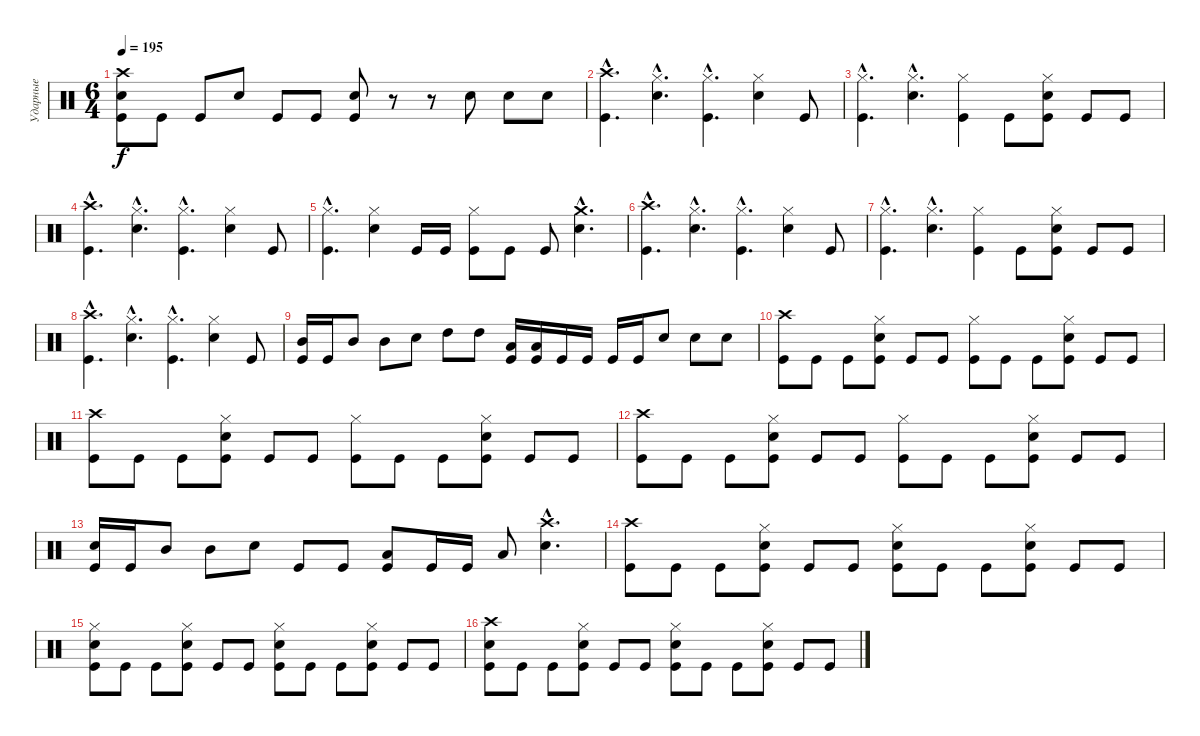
\track ("Ударные" "Ударные") {instrument percussion}
\staff {score}
\articulation defaults
\ts (6 4)
\tempo 195
\clef neutral
\ks c
("Crash high (hit)" "Electric Snare (hit)" "Kick (hit)").8{dy f} "Kick (hit)".8 "Kick (hit)".8 "Electric Snare (hit)".8 "Kick (hit)".8 "Kick (hit)".8 ("Electric Snare (hit)" "Kick (hit)").8 r.8 r.8 "Electric Snare (hit)".8 "Electric Snare (hit)".8 "Electric Snare (hit)".8 |
("Crash high (hit)"{hac} "Kick (hit)"{hac}).4{d} ("Hi-Hat (closed)"{hac} "Electric Snare (hit)"{hac}).4{d} ("Hi-Hat (closed)"{hac} "Kick (hit)"{hac}).4{d} ("Hi-Hat (closed)" "Electric Snare (hit)").4 "Kick (hit)".8 |
("Hi-Hat (closed)"{hac} "Kick (hit)"{hac}).4{d} ("Hi-Hat (closed)"{hac} "Electric Snare (hit)"{hac}).4{d} ("Hi-Hat (closed)" "Kick (hit)").4 "Kick (hit)".8 ("Hi-Hat (closed)" "Electric Snare (hit)" "Kick (hit)").8 "Kick (hit)".8 "Kick (hit)".8 |
("Crash high (hit)"{hac} "Kick (hit)"{hac}).4{d} ("Hi-Hat (closed)"{hac} "Electric Snare (hit)"{hac}).4{d} ("Hi-Hat (closed)"{hac} "Kick (hit)"{hac}).4{d} ("Hi-Hat (closed)" "Electric Snare (hit)").4 "Kick (hit)".8 |
("Hi-Hat (closed)"{hac} "Kick (hit)"{hac}).4{d} ("Hi-Hat (closed)" "Electric Snare (hit)").4 "Kick (hit)".16 "Kick (hit)".16 ("Hi-Hat (closed)" "Kick (hit)").8 "Kick (hit)".8 "Kick (hit)".8 ("Crash medium (hit)"{hac} "Electric Snare (hit)"{hac}).4{d} |
("Crash high (hit)"{hac} "Kick (hit)"{hac}).4{d} ("Hi-Hat (closed)"{hac} "Electric Snare (hit)"{hac}).4{d} ("Hi-Hat (closed)"{hac} "Kick (hit)"{hac}).4{d} ("Hi-Hat (closed)" "Electric Snare (hit)").4 "Kick (hit)".8 |
("Hi-Hat (closed)"{hac} "Kick (hit)"{hac}).4{d} ("Hi-Hat (closed)"{hac} "Electric Snare (hit)"{hac}).4{d} ("Hi-Hat (closed)" "Kick (hit)").4 "Kick (hit)".8 ("Hi-Hat (closed)" "Electric Snare (hit)" "Kick (hit)").8 "Kick (hit)".8 "Kick (hit)".8 |
("Crash high (hit)"{hac} "Kick (hit)"{hac}).4{d} ("Hi-Hat (closed)"{hac} "Electric Snare (hit)"{hac}).4{d} ("Hi-Hat (closed)"{hac} "Kick (hit)"{hac}).4{d} ("Hi-Hat (closed)" "Electric Snare (hit)").4 "Kick (hit)".8 |
("Mid Tom (hit)" "Kick (hit)").16 "Kick (hit)".16 "Mid Tom (hit)".8 "Mid Tom (hit)".8 "Electric Snare (hit)".8 "High Tom (hit)".8 "High Tom (hit)".8 ("Low Tom (hit)" "Kick (hit)").16 ("Low Tom (hit)" "Kick (hit)").16 "Kick (hit)".16 "Kick (hit)".16 "Kick (hit)".16 "Kick (hit)".16 "Electric Snare (hit)".8 "Electric Snare (hit)".8 "Electric Snare (hit)".8 |
("Crash high (hit)" "Kick (hit)").8 "Kick (hit)".8 "Kick (hit)".8 ("Hi-Hat (closed)" "Electric Snare (hit)" "Kick (hit)").8 "Kick (hit)".8 "Kick (hit)".8 ("Hi-Hat (closed)" "Kick (hit)").8 "Kick (hit)".8 "Kick (hit)".8 ("Hi-Hat (closed)" "Electric Snare (hit)" "Kick (hit)").8 "Kick (hit)".8 "Kick (hit)".8 |
("Crash high (hit)" "Kick (hit)").8 "Kick (hit)".8 "Kick (hit)".8 ("Hi-Hat (closed)" "Electric Snare (hit)" "Kick (hit)").8 "Kick (hit)".8 "Kick (hit)".8 ("Hi-Hat (closed)" "Kick (hit)").8 "Kick (hit)".8 "Kick (hit)".8 ("Hi-Hat (closed)" "Electric Snare (hit)" "Kick (hit)").8 "Kick (hit)".8 "Kick (hit)".8 |
("Crash high (hit)" "Kick (hit)").8 "Kick (hit)".8 "Kick (hit)".8 ("Hi-Hat (closed)" "Electric Snare (hit)" "Kick (hit)").8 "Kick (hit)".8 "Kick (hit)".8 ("Hi-Hat (closed)" "Kick (hit)").8 "Kick (hit)".8 "Kick (hit)".8 ("Hi-Hat (closed)" "Electric Snare (hit)" "Kick (hit)").8 "Kick (hit)".8 "Kick (hit)".8 |
("Electric Snare (hit)" "Kick (hit)").16 "Kick (hit)".16 "Mid Tom (hit)".8 "Mid Tom (hit)".8 "Electric Snare (hit)".8 "Kick (hit)".8 "Kick (hit)".8 ("Low Tom (hit)" "Kick (hit)").8 "Kick (hit)".16 "Kick (hit)".16 "Low Tom (hit)".8 ("Crash high (hit)"{hac} "Electric Snare (hit)"{hac}).4{d} |
("Crash high (hit)" "Kick (hit)").8 "Kick (hit)".8 "Kick (hit)".8 ("Hi-Hat (closed)" "Electric Snare (hit)" "Kick (hit)").8 "Kick (hit)".8 "Kick (hit)".8 ("Hi-Hat (closed)" "Electric Snare (hit)" "Kick (hit)").8 "Kick (hit)".8 "Kick (hit)".8 ("Hi-Hat (closed)" "Electric Snare (hit)" "Kick (hit)").8 "Kick (hit)".8 "Kick (hit)".8 |
("Hi-Hat (closed)" "Electric Snare (hit)" "Kick (hit)").8 "Kick (hit)".8 "Kick (hit)".8 ("Hi-Hat (closed)" "Electric Snare (hit)" "Kick (hit)").8 "Kick (hit)".8 "Kick (hit)".8 ("Hi-Hat (closed)" "Electric Snare (hit)" "Kick (hit)").8 "Kick (hit)".8 "Kick (hit)".8 ("Hi-Hat (closed)" "Electric Snare (hit)" "Kick (hit)").8 "Kick (hit)".8 "Kick (hit)".8 |
("Crash high (hit)" "Electric Snare (hit)" "Kick (hit)").8 "Kick (hit)".8 "Kick (hit)".8 ("Hi-Hat (closed)" "Electric Snare (hit)" "Kick (hit)").8 "Kick (hit)".8 "Kick (hit)".8 ("Hi-Hat (closed)" "Electric Snare (hit)" "Kick (hit)").8 "Kick (hit)".8 "Kick (hit)".8 ("Hi-Hat (closed)" "Electric Snare (hit)" "Kick (hit)").8 "Kick (hit)".8 "Kick (hit)".8
